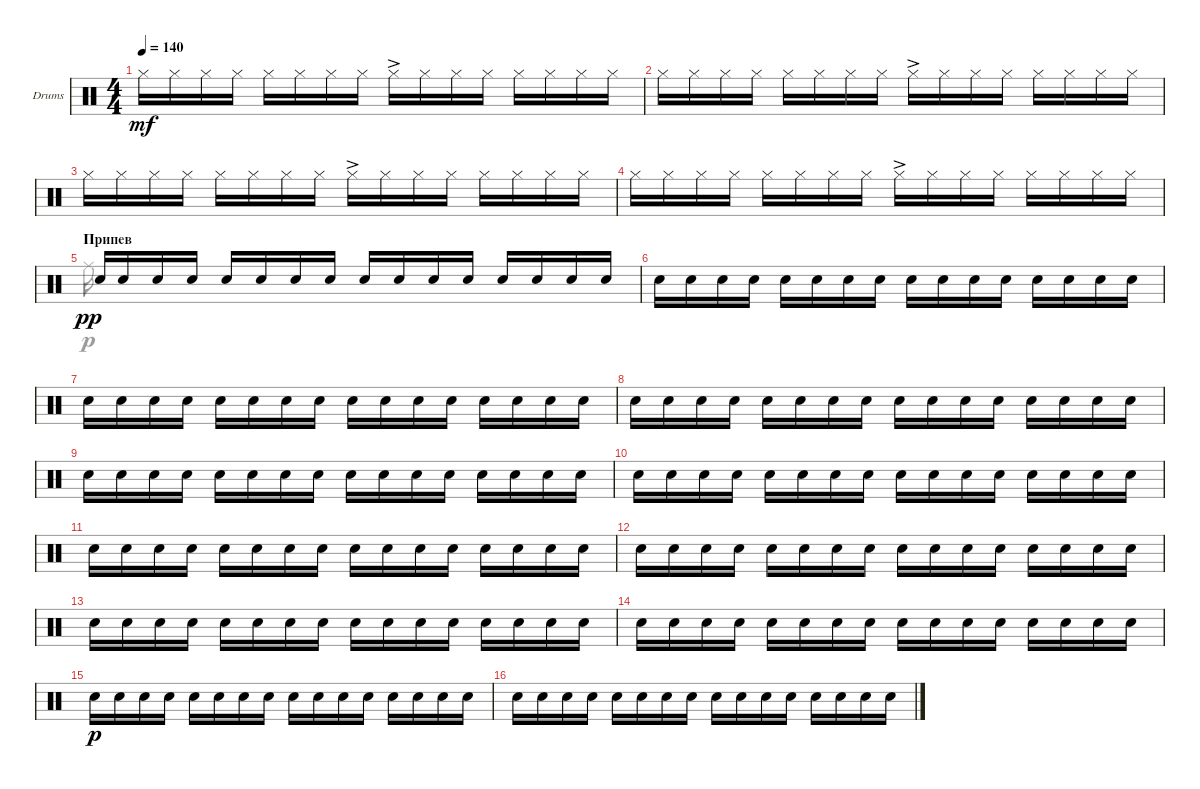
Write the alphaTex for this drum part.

\defaultSystemsLayout 4
\bracketExtendMode groupsimilarinstruments
\firstSystemTrackNameOrientation horizontal
\otherSystemsTrackNameOrientation horizontal
\track ("Ударные" "Drums") {instrument percussion}
\staff {score}
\articulation defaults
\voice
\ts (4 4)
\tempo 140
\clef neutral
\scale
0.333333
\ks c "Hi-Hat (closed)".16{dy mf} "Hi-Hat (closed)".16 "Hi-Hat (closed)".16 "Hi-Hat (closed)".16 "Hi-Hat (closed)".16 "Hi-Hat (closed)".16 "Hi-Hat (closed)".16 "Hi-Hat (closed)".16 "Hi-Hat (closed)"{ac}.16 "Hi-Hat (closed)".16 "Hi-Hat (closed)".16 "Hi-Hat (closed)".16 "Hi-Hat (closed)".16 "Hi-Hat (closed)".16 "Hi-Hat (closed)".16 "Hi-Hat (closed)".16
|
\scale
0.333333 "Hi-Hat (closed)".16 "Hi-Hat (closed)".16 "Hi-Hat (closed)".16 "Hi-Hat (closed)".16 "Hi-Hat (closed)".16 "Hi-Hat (closed)".16 "Hi-Hat (closed)".16 "Hi-Hat (closed)".16 "Hi-Hat (closed)"{ac}.16 "Hi-Hat (closed)".16 "Hi-Hat (closed)".16 "Hi-Hat (closed)".16 "Hi-Hat (closed)".16 "Hi-Hat (closed)".16 "Hi-Hat (closed)".16 "Hi-Hat (closed)".16 |
\scale
0.333333 "Hi-Hat (closed)".16 "Hi-Hat (closed)".16 "Hi-Hat (closed)".16 "Hi-Hat (closed)".16 "Hi-Hat (closed)".16 "Hi-Hat (closed)".16 "Hi-Hat (closed)".16 "Hi-Hat (closed)".16 "Hi-Hat (closed)"{ac}.16 "Hi-Hat (closed)".16 "Hi-Hat (closed)".16 "Hi-Hat (closed)".16 "Hi-Hat (closed)".16 "Hi-Hat (closed)".16 "Hi-Hat (closed)".16 "Hi-Hat (closed)".16 |
\scale
0.333333 "Hi-Hat (closed)".16 "Hi-Hat (closed)".16 "Hi-Hat (closed)".16 "Hi-Hat (closed)".16 "Hi-Hat (closed)".16 "Hi-Hat (closed)".16 "Hi-Hat (closed)".16 "Hi-Hat (closed)".16 "Hi-Hat (closed)"{ac}.16 "Hi-Hat (closed)".16 "Hi-Hat (closed)".16 "Hi-Hat (closed)".16 "Hi-Hat (closed)".16 "Hi-Hat (closed)".16 "Hi-Hat (closed)".16 "Hi-Hat (closed)".16 |
\section ("" "Припев")
\scale
0.333333 "Snare (hit) 2".16{dy pp} "Snare (hit) 2".16 "Snare (hit) 2".16 "Snare (hit) 2".16 "Snare (hit) 2".16 "Snare (hit) 2".16 "Snare (hit) 2".16 "Snare (hit) 2".16 "Snare (hit) 2".16 "Snare (hit) 2".16 "Snare (hit) 2".16 "Snare (hit) 2".16 "Snare (hit) 2".16 "Snare (hit) 2".16 "Snare (hit) 2".16 "Snare (hit) 2".16 |
\scale
0.333333 "Snare (hit) 2".16 "Snare (hit) 2".16 "Snare (hit) 2".16 "Snare (hit) 2".16 "Snare (hit) 2".16 "Snare (hit) 2".16 "Snare (hit) 2".16 "Snare (hit) 2".16 "Snare (hit) 2".16 "Snare (hit) 2".16 "Snare (hit) 2".16 "Snare (hit) 2".16 "Snare (hit) 2".16 "Snare (hit) 2".16 "Snare (hit) 2".16 "Snare (hit) 2".16 |
\scale
0.333333 "Snare (hit) 2".16 "Snare (hit) 2".16 "Snare (hit) 2".16 "Snare (hit) 2".16 "Snare (hit) 2".16 "Snare (hit) 2".16 "Snare (hit) 2".16 "Snare (hit) 2".16 "Snare (hit) 2".16 "Snare (hit) 2".16 "Snare (hit) 2".16 "Snare (hit) 2".16 "Snare (hit) 2".16 "Snare (hit) 2".16 "Snare (hit) 2".16 "Snare (hit) 2".16 |
\scale
0.333333 "Snare (hit) 2".16 "Snare (hit) 2".16 "Snare (hit) 2".16 "Snare (hit) 2".16 "Snare (hit) 2".16 "Snare (hit) 2".16 "Snare (hit) 2".16 "Snare (hit) 2".16 "Snare (hit) 2".16 "Snare (hit) 2".16 "Snare (hit) 2".16 "Snare (hit) 2".16 "Snare (hit) 2".16 "Snare (hit) 2".16 "Snare (hit) 2".16 "Snare (hit) 2".16 |
\scale
0.333333 "Snare (hit) 2".16 "Snare (hit) 2".16 "Snare (hit) 2".16 "Snare (hit) 2".16 "Snare (hit) 2".16 "Snare (hit) 2".16 "Snare (hit) 2".16 "Snare (hit) 2".16 "Snare (hit) 2".16 "Snare (hit) 2".16 "Snare (hit) 2".16 "Snare (hit) 2".16 "Snare (hit) 2".16 "Snare (hit) 2".16 "Snare (hit) 2".16 "Snare (hit) 2".16 |
\scale
0.333333 "Snare (hit) 2".16 "Snare (hit) 2".16 "Snare (hit) 2".16 "Snare (hit) 2".16 "Snare (hit) 2".16 "Snare (hit) 2".16 "Snare (hit) 2".16 "Snare (hit) 2".16 "Snare (hit) 2".16 "Snare (hit) 2".16 "Snare (hit) 2".16 "Snare (hit) 2".16 "Snare (hit) 2".16 "Snare (hit) 2".16 "Snare (hit) 2".16 "Snare (hit) 2".16 |
\scale
0.333333 "Snare (hit) 2".16 "Snare (hit) 2".16 "Snare (hit) 2".16 "Snare (hit) 2".16 "Snare (hit) 2".16 "Snare (hit) 2".16 "Snare (hit) 2".16 "Snare (hit) 2".16 "Snare (hit) 2".16 "Snare (hit) 2".16 "Snare (hit) 2".16 "Snare (hit) 2".16 "Snare (hit) 2".16 "Snare (hit) 2".16 "Snare (hit) 2".16 "Snare (hit) 2".16 |
\scale
0.333333 "Snare (hit) 2".16 "Snare (hit) 2".16 "Snare (hit) 2".16 "Snare (hit) 2".16 "Snare (hit) 2".16 "Snare (hit) 2".16 "Snare (hit) 2".16 "Snare (hit) 2".16 "Snare (hit) 2".16 "Snare (hit) 2".16 "Snare (hit) 2".16 "Snare (hit) 2".16 "Snare (hit) 2".16 "Snare (hit) 2".16 "Snare (hit) 2".16 "Snare (hit) 2".16 |
\scale
0.333333 "Snare (hit) 2".16 "Snare (hit) 2".16 "Snare (hit) 2".16 "Snare (hit) 2".16 "Snare (hit) 2".16 "Snare (hit) 2".16 "Snare (hit) 2".16 "Snare (hit) 2".16 "Snare (hit) 2".16 "Snare (hit) 2".16 "Snare (hit) 2".16 "Snare (hit) 2".16 "Snare (hit) 2".16 "Snare (hit) 2".16 "Snare (hit) 2".16 "Snare (hit) 2".16 |
\scale
0.333333 "Snare (hit) 2".16 "Snare (hit) 2".16 "Snare (hit) 2".16 "Snare (hit) 2".16 "Snare (hit) 2".16 "Snare (hit) 2".16 "Snare (hit) 2".16 "Snare (hit) 2".16 "Snare (hit) 2".16 "Snare (hit) 2".16 "Snare (hit) 2".16 "Snare (hit) 2".16 "Snare (hit) 2".16 "Snare (hit) 2".16 "Snare (hit) 2".16 "Snare (hit) 2".16 |
\scale
0.333333 "Snare (hit) 2".16{dy p} "Snare (hit) 2".16 "Snare (hit) 2".16 "Snare (hit) 2".16 "Snare (hit) 2".16 "Snare (hit) 2".16 "Snare (hit) 2".16 "Snare (hit) 2".16 "Snare (hit) 2".16 "Snare (hit) 2".16 "Snare (hit) 2".16 "Snare (hit) 2".16 "Snare (hit) 2".16 "Snare (hit) 2".16 "Snare (hit) 2".16 "Snare (hit) 2".16 |
\scale
0.333333 "Snare (hit) 2".16 "Snare (hit) 2".16 "Snare (hit) 2".16 "Snare (hit) 2".16 "Snare (hit) 2".16 "Snare (hit) 2".16 "Snare (hit) 2".16 "Snare (hit) 2".16 "Snare (hit) 2".16 "Snare (hit) 2".16 "Snare (hit) 2".16 "Snare (hit) 2".16 "Snare (hit) 2".16 "Snare (hit) 2".16 "Snare (hit) 2".16 "Snare (hit) 2".16
\voice
\clef neutral
\ottava regular
\simile none
\scale
0.333333
\ks c
|
\scale
0.333333 |
\scale
0.333333 |
\scale
0.333333 |
\scale
0.333333 "Ride (middle)".16 |
\scale
0.333333 |
\scale
0.333333 |
\scale
0.333333 |
\scale
0.333333 |
\scale
0.333333 |
\scale
0.333333 |
\scale
0.333333 |
\scale
0.333333 |
\scale
0.333333 |
\scale
0.333333 |
\scale
0.333333
